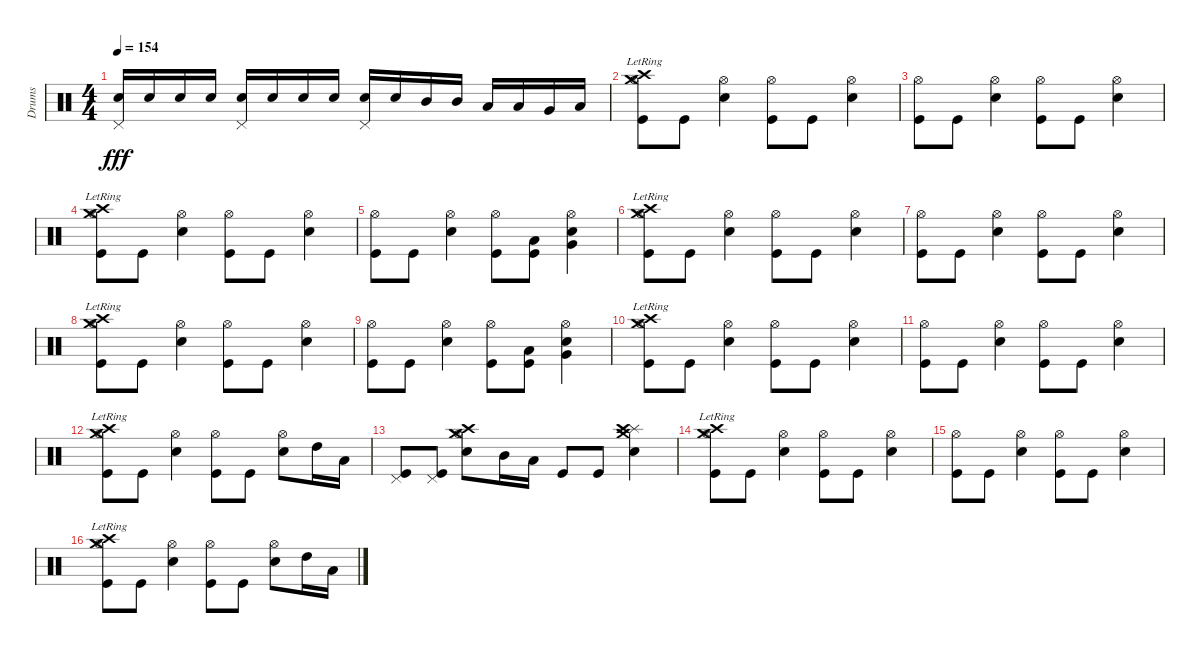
\track ("Drums" "Drums") {instrument percussion}
\staff {score}
\articulation defaults
\ts (4 4)
\tempo 154
\clef neutral
\ks c
("Pedal Hi-Hat (hit)" "Snare (hit) 2").16{dy fff} "Snare (hit) 2".16 "Snare (hit) 2".16 "Snare (hit) 2".16 ("Pedal Hi-Hat (hit)" "Snare (hit) 2").16 "Snare (hit) 2".16 "Snare (hit) 2".16 "Snare (hit) 2".16 ("Pedal Hi-Hat (hit)" "Snare (hit) 2").16 "Snare (hit) 2".16 "Mid Tom (hit)".16 "Mid Tom (hit)".16 "Low Tom (hit)".16 "Low Tom (hit)".16 "Very Low Tom (hit)".16 "Low Floor Tom (hit)".16 |
("Crash high (hit)"{lr} "Hi-Hat (open)" "Crash medium (hit)"{lr} "Kick (hit)").8 "Kick (hit)".8 ("Hi-Hat (open)" "Snare (hit) 2").4 ("Hi-Hat (open)" "Kick (hit)").8 "Kick (hit)".8 ("Hi-Hat (open)" "Snare (hit) 2").4 |
("Hi-Hat (open)" "Kick (hit)").8 "Kick (hit)".8 ("Hi-Hat (open)" "Snare (hit) 2").4 ("Hi-Hat (open)" "Kick (hit)").8 "Kick (hit)".8 ("Hi-Hat (open)" "Snare (hit) 2").4 |
("Crash high (hit)"{lr} "Hi-Hat (open)" "Crash medium (hit)"{lr} "Kick (hit)").8 "Kick (hit)".8 ("Hi-Hat (open)" "Snare (hit) 2").4 ("Hi-Hat (open)" "Kick (hit)").8 "Kick (hit)".8 ("Hi-Hat (open)" "Snare (hit) 2").4 |
("Hi-Hat (open)" "Kick (hit)").8 "Kick (hit)".8 ("Hi-Hat (open)" "Snare (hit) 2").4 ("Hi-Hat (open)" "Kick (hit)").8 ("Low Tom (hit)" "Kick (hit)").8 ("Hi-Hat (open)" "Very Low Tom (hit)" "Snare (hit) 2").4 |
("Crash high (hit)"{lr} "Hi-Hat (open)" "Crash medium (hit)"{lr} "Kick (hit)").8 "Kick (hit)".8 ("Hi-Hat (open)" "Snare (hit) 2").4 ("Hi-Hat (open)" "Kick (hit)").8 "Kick (hit)".8 ("Hi-Hat (open)" "Snare (hit) 2").4 |
("Hi-Hat (open)" "Kick (hit)").8 "Kick (hit)".8 ("Hi-Hat (open)" "Snare (hit) 2").4 ("Hi-Hat (open)" "Kick (hit)").8 "Kick (hit)".8 ("Hi-Hat (open)" "Snare (hit) 2").4 |
("Crash high (hit)"{lr} "Hi-Hat (open)" "Crash medium (hit)"{lr} "Kick (hit)").8 "Kick (hit)".8 ("Hi-Hat (open)" "Snare (hit) 2").4 ("Hi-Hat (open)" "Kick (hit)").8 "Kick (hit)".8 ("Hi-Hat (open)" "Snare (hit) 2").4 |
("Hi-Hat (open)" "Kick (hit)").8 "Kick (hit)".8 ("Hi-Hat (open)" "Snare (hit) 2").4 ("Hi-Hat (open)" "Kick (hit)").8 ("Low Tom (hit)" "Kick (hit)").8 ("Hi-Hat (open)" "Very Low Tom (hit)" "Snare (hit) 2").4 |
("Crash high (hit)"{lr} "Hi-Hat (open)" "Crash medium (hit)"{lr} "Kick (hit)").8 "Kick (hit)".8 ("Hi-Hat (open)" "Snare (hit) 2").4 ("Hi-Hat (open)" "Kick (hit)").8 "Kick (hit)".8 ("Hi-Hat (open)" "Snare (hit) 2").4 |
("Hi-Hat (open)" "Kick (hit)").8 "Kick (hit)".8 ("Hi-Hat (open)" "Snare (hit) 2").4 ("Hi-Hat (open)" "Kick (hit)").8 "Kick (hit)".8 ("Hi-Hat (open)" "Snare (hit) 2").4 |
("Crash high (hit)"{lr} "Hi-Hat (open)" "Crash medium (hit)"{lr} "Kick (hit)").8 "Kick (hit)".8 ("Hi-Hat (open)" "Snare (hit) 2").4 ("Hi-Hat (open)" "Kick (hit)").8 "Kick (hit)".8 ("Hi-Hat (open)" "Snare (hit) 2").8 "High Tom (hit)".16 "Low Tom (hit)".16 |
("Pedal Hi-Hat (hit)" "Kick (hit)").8 ("Pedal Hi-Hat (hit)" "Kick (hit)").8 ("Crash high (hit)" "Crash medium (hit)" "Hi-Hat (open)" "Snare (hit) 2").8 "Mid Tom (hit)".16 "Low Tom (hit)".16 "Kick (hit)".8 "Kick (hit)".8 ("Crash medium (hit)" "Splash (hit)" "Crash high (hit)" "Snare (hit) 2").4 |
("Crash high (hit)"{lr} "Hi-Hat (open)" "Crash medium (hit)"{lr} "Kick (hit)").8 "Kick (hit)".8 ("Hi-Hat (open)" "Snare (hit) 2").4 ("Hi-Hat (open)" "Kick (hit)").8 "Kick (hit)".8 ("Hi-Hat (open)" "Snare (hit) 2").4 |
("Hi-Hat (open)" "Kick (hit)").8 "Kick (hit)".8 ("Hi-Hat (open)" "Snare (hit) 2").4 ("Hi-Hat (open)" "Kick (hit)").8 "Kick (hit)".8 ("Hi-Hat (open)" "Snare (hit) 2").4 |
("Crash high (hit)"{lr} "Hi-Hat (open)" "Crash medium (hit)"{lr} "Kick (hit)").8 "Kick (hit)".8 ("Hi-Hat (open)" "Snare (hit) 2").4 ("Hi-Hat (open)" "Kick (hit)").8 "Kick (hit)".8 ("Hi-Hat (open)" "Snare (hit) 2").8 "High Tom (hit)".16 "Low Tom (hit)".16
